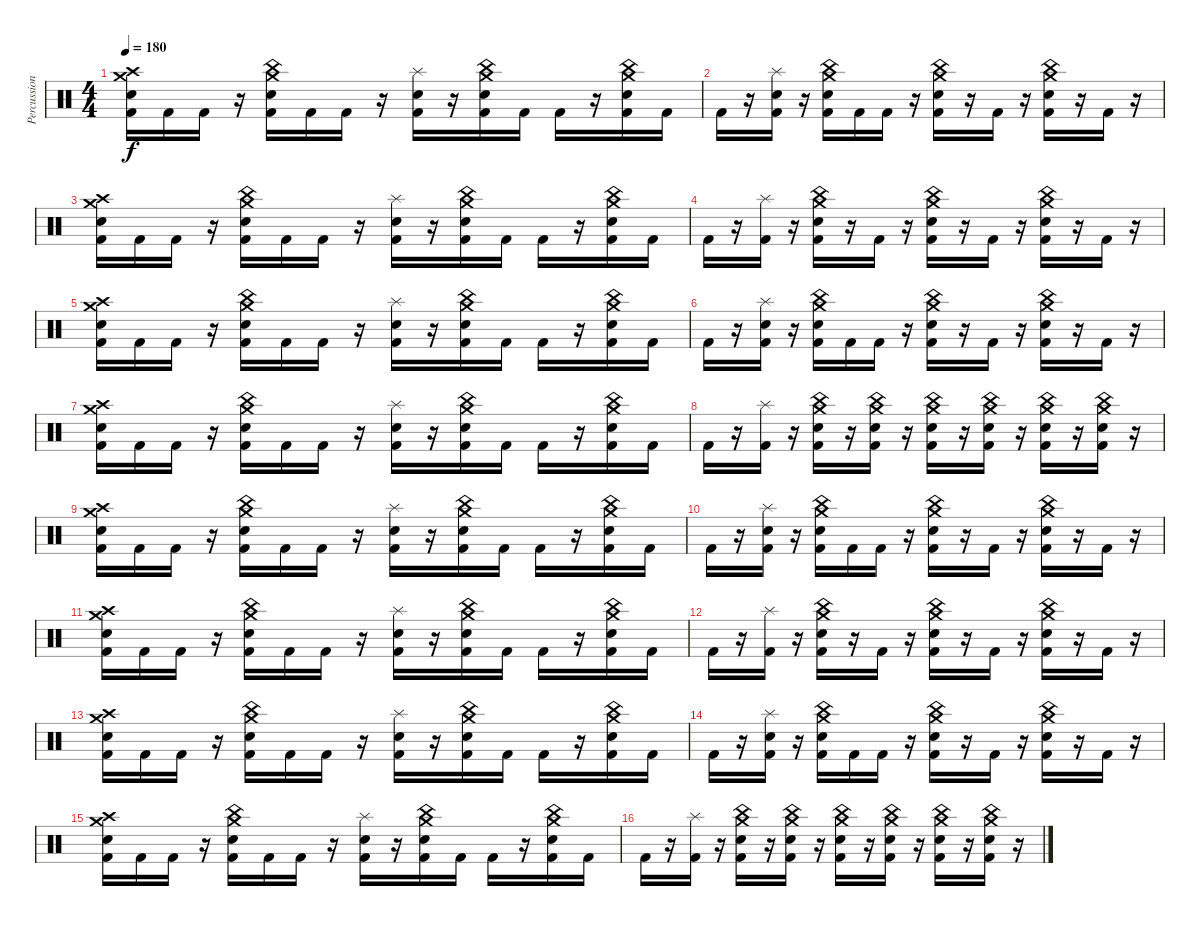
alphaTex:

\track ("Percussion" "Percussion") {instrument percussion}
\staff {score}
\articulation defaults
\ts (4 4)
\tempo 180
\clef neutral
\ks c
("Crash medium (hit)" "Crash high (hit)" "Electric Snare (hit)" "Kick (hit) 2").16{dy f} "Kick (hit) 2".16 "Kick (hit) 2".16 r.16 ("China (hit)" "Crash medium (hit)" "Electric Snare (hit)" "Kick (hit) 2").16 "Kick (hit) 2".16 "Kick (hit) 2".16 r.16 ("Splash (hit)" "Electric Snare (hit)" "Kick (hit) 2").16 r.16 ("China (hit)" "Crash medium (hit)" "Electric Snare (hit)" "Kick (hit) 2").16 "Kick (hit) 2".16 "Kick (hit) 2".16 r.16 ("China (hit)" "Crash medium (hit)" "Electric Snare (hit)" "Kick (hit) 2").16 "Kick (hit) 2".16 |
"Kick (hit) 2".16 r.16 ("Splash (hit)" "Electric Snare (hit)" "Kick (hit) 2").16 r.16 ("China (hit)" "Crash medium (hit)" "Electric Snare (hit)" "Kick (hit) 2").16 "Kick (hit) 2".16 "Kick (hit) 2".16 r.16 ("China (hit)" "Crash medium (hit)" "Electric Snare (hit)" "Kick (hit) 2").16 r.16 "Kick (hit) 2".16 r.16 ("China (hit)" "Crash medium (hit)" "Electric Snare (hit)" "Kick (hit) 2").16 r.16 "Kick (hit) 2".16 r.16 |
("Crash medium (hit)" "Crash high (hit)" "Electric Snare (hit)" "Kick (hit) 2").16 "Kick (hit) 2".16 "Kick (hit) 2".16 r.16 ("China (hit)" "Crash medium (hit)" "Electric Snare (hit)" "Kick (hit) 2").16 "Kick (hit) 2".16 "Kick (hit) 2".16 r.16 ("Splash (hit)" "Electric Snare (hit)" "Kick (hit) 2").16 r.16 ("China (hit)" "Crash medium (hit)" "Electric Snare (hit)" "Kick (hit) 2").16 "Kick (hit) 2".16 "Kick (hit) 2".16 r.16 ("China (hit)" "Crash medium (hit)" "Electric Snare (hit)" "Kick (hit) 2").16 "Kick (hit) 2".16 |
"Kick (hit) 2".16 r.16 ("Splash (hit)" "Kick (hit) 2").16 r.16 ("China (hit)" "Crash medium (hit)" "Electric Snare (hit)" "Kick (hit) 2").16 r.16 "Kick (hit) 2".16 r.16 ("China (hit)" "Crash medium (hit)" "Electric Snare (hit)" "Kick (hit) 2").16 r.16 "Kick (hit) 2".16 r.16 ("China (hit)" "Crash medium (hit)" "Electric Snare (hit)" "Kick (hit) 2").16 r.16 "Kick (hit) 2".16 r.16 |
("Crash medium (hit)" "Crash high (hit)" "Electric Snare (hit)" "Kick (hit) 2").16 "Kick (hit) 2".16 "Kick (hit) 2".16 r.16 ("China (hit)" "Crash medium (hit)" "Electric Snare (hit)" "Kick (hit) 2").16 "Kick (hit) 2".16 "Kick (hit) 2".16 r.16 ("Splash (hit)" "Electric Snare (hit)" "Kick (hit) 2").16 r.16 ("China (hit)" "Crash medium (hit)" "Electric Snare (hit)" "Kick (hit) 2").16 "Kick (hit) 2".16 "Kick (hit) 2".16 r.16 ("China (hit)" "Crash medium (hit)" "Electric Snare (hit)" "Kick (hit) 2").16 "Kick (hit) 2".16 |
"Kick (hit) 2".16 r.16 ("Splash (hit)" "Electric Snare (hit)" "Kick (hit) 2").16 r.16 ("China (hit)" "Crash medium (hit)" "Electric Snare (hit)" "Kick (hit) 2").16 "Kick (hit) 2".16 "Kick (hit) 2".16 r.16 ("China (hit)" "Crash medium (hit)" "Electric Snare (hit)" "Kick (hit) 2").16 r.16 "Kick (hit) 2".16 r.16 ("China (hit)" "Crash medium (hit)" "Electric Snare (hit)" "Kick (hit) 2").16 r.16 "Kick (hit) 2".16 r.16 |
("Crash medium (hit)" "Crash high (hit)" "Electric Snare (hit)" "Kick (hit) 2").16 "Kick (hit) 2".16 "Kick (hit) 2".16 r.16 ("China (hit)" "Crash medium (hit)" "Electric Snare (hit)" "Kick (hit) 2").16 "Kick (hit) 2".16 "Kick (hit) 2".16 r.16 ("Splash (hit)" "Electric Snare (hit)" "Kick (hit) 2").16 r.16 ("China (hit)" "Crash medium (hit)" "Electric Snare (hit)" "Kick (hit) 2").16 "Kick (hit) 2".16 "Kick (hit) 2".16 r.16 ("China (hit)" "Crash medium (hit)" "Electric Snare (hit)" "Kick (hit) 2").16 "Kick (hit) 2".16 |
"Kick (hit) 2".16 r.16 ("Splash (hit)" "Kick (hit) 2").16 r.16 ("China (hit)" "Crash medium (hit)" "Electric Snare (hit)" "Kick (hit) 2").16 r.16 ("China (hit)" "Crash medium (hit)" "Electric Snare (hit)" "Kick (hit) 2").16 r.16 ("China (hit)" "Crash medium (hit)" "Electric Snare (hit)" "Kick (hit) 2").16 r.16 ("China (hit)" "Crash medium (hit)" "Electric Snare (hit)" "Kick (hit) 2").16 r.16 ("China (hit)" "Crash medium (hit)" "Electric Snare (hit)" "Kick (hit) 2").16 r.16 ("China (hit)" "Crash medium (hit)" "Electric Snare (hit)" "Kick (hit) 2").16 r.16 |
("Crash medium (hit)" "Crash high (hit)" "Electric Snare (hit)" "Kick (hit) 2").16 "Kick (hit) 2".16 "Kick (hit) 2".16 r.16 ("China (hit)" "Crash medium (hit)" "Electric Snare (hit)" "Kick (hit) 2").16 "Kick (hit) 2".16 "Kick (hit) 2".16 r.16 ("Splash (hit)" "Electric Snare (hit)" "Kick (hit) 2").16 r.16 ("China (hit)" "Crash medium (hit)" "Electric Snare (hit)" "Kick (hit) 2").16 "Kick (hit) 2".16 "Kick (hit) 2".16 r.16 ("China (hit)" "Crash medium (hit)" "Electric Snare (hit)" "Kick (hit) 2").16 "Kick (hit) 2".16 |
"Kick (hit) 2".16 r.16 ("Splash (hit)" "Electric Snare (hit)" "Kick (hit) 2").16 r.16 ("China (hit)" "Crash medium (hit)" "Electric Snare (hit)" "Kick (hit) 2").16 "Kick (hit) 2".16 "Kick (hit) 2".16 r.16 ("China (hit)" "Crash medium (hit)" "Electric Snare (hit)" "Kick (hit) 2").16 r.16 "Kick (hit) 2".16 r.16 ("China (hit)" "Crash medium (hit)" "Electric Snare (hit)" "Kick (hit) 2").16 r.16 "Kick (hit) 2".16 r.16 |
("Crash medium (hit)" "Crash high (hit)" "Electric Snare (hit)" "Kick (hit) 2").16 "Kick (hit) 2".16 "Kick (hit) 2".16 r.16 ("China (hit)" "Crash medium (hit)" "Electric Snare (hit)" "Kick (hit) 2").16 "Kick (hit) 2".16 "Kick (hit) 2".16 r.16 ("Splash (hit)" "Electric Snare (hit)" "Kick (hit) 2").16 r.16 ("China (hit)" "Crash medium (hit)" "Electric Snare (hit)" "Kick (hit) 2").16 "Kick (hit) 2".16 "Kick (hit) 2".16 r.16 ("China (hit)" "Crash medium (hit)" "Electric Snare (hit)" "Kick (hit) 2").16 "Kick (hit) 2".16 |
"Kick (hit) 2".16 r.16 ("Splash (hit)" "Kick (hit) 2").16 r.16 ("China (hit)" "Crash medium (hit)" "Electric Snare (hit)" "Kick (hit) 2").16 r.16 "Kick (hit) 2".16 r.16 ("China (hit)" "Crash medium (hit)" "Electric Snare (hit)" "Kick (hit) 2").16 r.16 "Kick (hit) 2".16 r.16 ("China (hit)" "Crash medium (hit)" "Electric Snare (hit)" "Kick (hit) 2").16 r.16 "Kick (hit) 2".16 r.16 |
("Crash medium (hit)" "Crash high (hit)" "Electric Snare (hit)" "Kick (hit) 2").16 "Kick (hit) 2".16 "Kick (hit) 2".16 r.16 ("China (hit)" "Crash medium (hit)" "Electric Snare (hit)" "Kick (hit) 2").16 "Kick (hit) 2".16 "Kick (hit) 2".16 r.16 ("Splash (hit)" "Electric Snare (hit)" "Kick (hit) 2").16 r.16 ("China (hit)" "Crash medium (hit)" "Electric Snare (hit)" "Kick (hit) 2").16 "Kick (hit) 2".16 "Kick (hit) 2".16 r.16 ("China (hit)" "Crash medium (hit)" "Electric Snare (hit)" "Kick (hit) 2").16 "Kick (hit) 2".16 |
"Kick (hit) 2".16 r.16 ("Splash (hit)" "Electric Snare (hit)" "Kick (hit) 2").16 r.16 ("China (hit)" "Crash medium (hit)" "Electric Snare (hit)" "Kick (hit) 2").16 "Kick (hit) 2".16 "Kick (hit) 2".16 r.16 ("China (hit)" "Crash medium (hit)" "Electric Snare (hit)" "Kick (hit) 2").16 r.16 "Kick (hit) 2".16 r.16 ("China (hit)" "Crash medium (hit)" "Electric Snare (hit)" "Kick (hit) 2").16 r.16 "Kick (hit) 2".16 r.16 |
("Crash medium (hit)" "Crash high (hit)" "Electric Snare (hit)" "Kick (hit) 2").16 "Kick (hit) 2".16 "Kick (hit) 2".16 r.16 ("China (hit)" "Crash medium (hit)" "Electric Snare (hit)" "Kick (hit) 2").16 "Kick (hit) 2".16 "Kick (hit) 2".16 r.16 ("Splash (hit)" "Electric Snare (hit)" "Kick (hit) 2").16 r.16 ("China (hit)" "Crash medium (hit)" "Electric Snare (hit)" "Kick (hit) 2").16 "Kick (hit) 2".16 "Kick (hit) 2".16 r.16 ("China (hit)" "Crash medium (hit)" "Electric Snare (hit)" "Kick (hit) 2").16 "Kick (hit) 2".16 |
"Kick (hit) 2".16 r.16 ("Splash (hit)" "Kick (hit) 2").16 r.16 ("China (hit)" "Crash medium (hit)" "Electric Snare (hit)" "Kick (hit) 2").16 r.16 ("China (hit)" "Crash medium (hit)" "Electric Snare (hit)" "Kick (hit) 2").16 r.16 ("China (hit)" "Crash medium (hit)" "Electric Snare (hit)" "Kick (hit) 2").16 r.16 ("China (hit)" "Crash medium (hit)" "Electric Snare (hit)" "Kick (hit) 2").16 r.16 ("China (hit)" "Crash medium (hit)" "Electric Snare (hit)" "Kick (hit) 2").16 r.16 ("China (hit)" "Crash medium (hit)" "Electric Snare (hit)" "Kick (hit) 2").16 r.16
